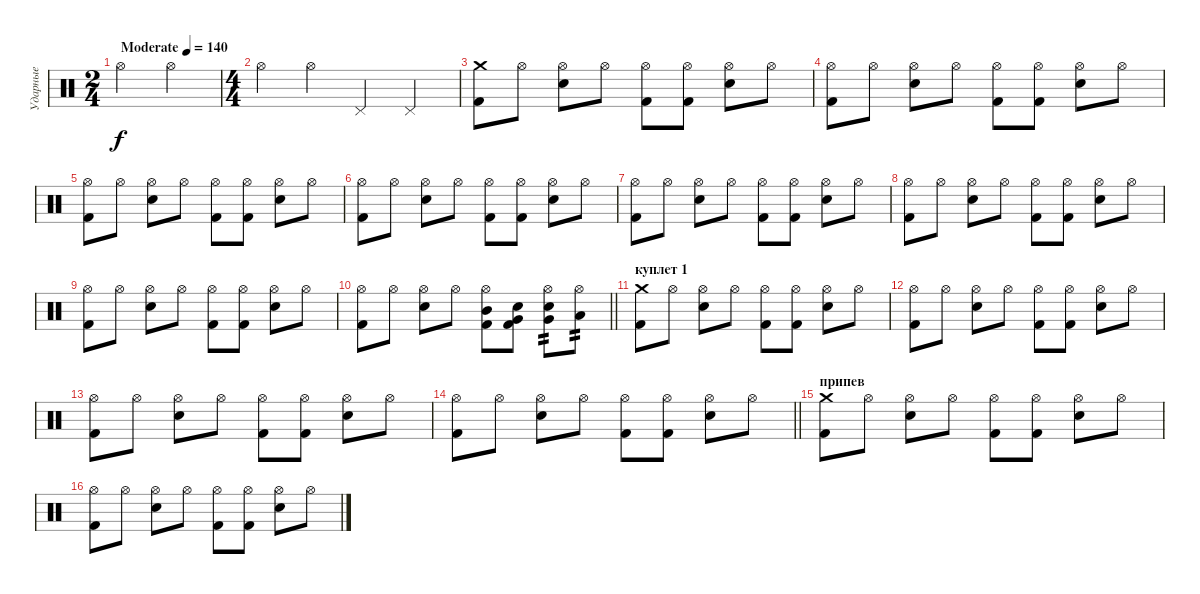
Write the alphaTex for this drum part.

\track ("Ударные" "Ударные") {instrument percussion}
\staff {score}
\articulation defaults
\ts (2 4)
\tempo (140 "Moderate")
\clef neutral
\ks c "Hi-Hat (open)".4{dy f} "Hi-Hat (open)".4
|
\ts (4 4)
"Hi-Hat (open)".4 "Hi-Hat (open)".4 "Pedal Hi-Hat (hit)".4 "Pedal Hi-Hat (hit)".4 |
("Crash medium (hit)" "Kick (hit) 2").8 "Hi-Hat (open)".8 ("Hi-Hat (open)" "Electric Snare (hit)").8 "Hi-Hat (open)".8 ("Hi-Hat (open)" "Kick (hit) 2").8 ("Hi-Hat (open)" "Kick (hit) 2").8 ("Hi-Hat (open)" "Electric Snare (hit)").8 "Hi-Hat (open)".8 |
("Hi-Hat (open)" "Kick (hit) 2").8 "Hi-Hat (open)".8 ("Hi-Hat (open)" "Electric Snare (hit)").8 "Hi-Hat (open)".8 ("Hi-Hat (open)" "Kick (hit) 2").8 ("Hi-Hat (open)" "Kick (hit) 2").8 ("Hi-Hat (open)" "Electric Snare (hit)").8 "Hi-Hat (open)".8 |
("Hi-Hat (open)" "Kick (hit) 2").8 "Hi-Hat (open)".8 ("Hi-Hat (open)" "Electric Snare (hit)").8 "Hi-Hat (open)".8 ("Hi-Hat (open)" "Kick (hit) 2").8 ("Hi-Hat (open)" "Kick (hit) 2").8 ("Hi-Hat (open)" "Electric Snare (hit)").8 "Hi-Hat (open)".8 |
("Hi-Hat (open)" "Kick (hit) 2").8 "Hi-Hat (open)".8 ("Hi-Hat (open)" "Electric Snare (hit)").8 "Hi-Hat (open)".8 ("Hi-Hat (open)" "Kick (hit) 2").8 ("Hi-Hat (open)" "Kick (hit) 2").8 ("Hi-Hat (open)" "Electric Snare (hit)").8 "Hi-Hat (open)".8 |
("Hi-Hat (open)" "Kick (hit) 2").8 "Hi-Hat (open)".8 ("Hi-Hat (open)" "Electric Snare (hit)").8 "Hi-Hat (open)".8 ("Hi-Hat (open)" "Kick (hit) 2").8 ("Hi-Hat (open)" "Kick (hit) 2").8 ("Hi-Hat (open)" "Electric Snare (hit)").8 "Hi-Hat (open)".8 |
("Hi-Hat (open)" "Kick (hit) 2").8 "Hi-Hat (open)".8 ("Hi-Hat (open)" "Electric Snare (hit)").8 "Hi-Hat (open)".8 ("Hi-Hat (open)" "Kick (hit) 2").8 ("Hi-Hat (open)" "Kick (hit) 2").8 ("Hi-Hat (open)" "Electric Snare (hit)").8 "Hi-Hat (open)".8 |
("Hi-Hat (open)" "Kick (hit) 2").8 "Hi-Hat (open)".8 ("Hi-Hat (open)" "Electric Snare (hit)").8 "Hi-Hat (open)".8 ("Hi-Hat (open)" "Kick (hit) 2").8 ("Hi-Hat (open)" "Kick (hit) 2").8 ("Hi-Hat (open)" "Electric Snare (hit)").8 "Hi-Hat (open)".8 |
\barLineRight lightlight
("Hi-Hat (open)" "Kick (hit) 2").8 "Hi-Hat (open)".8 ("Hi-Hat (open)" "Electric Snare (hit)").8 "Hi-Hat (open)".8 ("Mid Tom (hit)" "Hi-Hat (open)" "Kick (hit) 2").8 ("Very Low Tom (hit)" "Electric Snare (hit)" "Kick (hit) 2").8 ("Very Low Tom (hit)" "Hi-Hat (open)" "Electric Snare (hit)").8{tp 2} ("Low Floor Tom (hit)" "Hi-Hat (open)").8{tp 2} |
\section ("" "куплет 1")
("Crash medium (hit)" "Kick (hit) 2").8 "Hi-Hat (open)".8 ("Hi-Hat (open)" "Electric Snare (hit)").8 "Hi-Hat (open)".8 ("Hi-Hat (open)" "Kick (hit) 2").8 ("Hi-Hat (open)" "Kick (hit) 2").8 ("Hi-Hat (open)" "Electric Snare (hit)").8 "Hi-Hat (open)".8 |
("Hi-Hat (open)" "Kick (hit) 2").8 "Hi-Hat (open)".8 ("Hi-Hat (open)" "Electric Snare (hit)").8 "Hi-Hat (open)".8 ("Hi-Hat (open)" "Kick (hit) 2").8 ("Hi-Hat (open)" "Kick (hit) 2").8 ("Hi-Hat (open)" "Electric Snare (hit)").8 "Hi-Hat (open)".8 |
("Hi-Hat (open)" "Kick (hit) 2").8 "Hi-Hat (open)".8 ("Hi-Hat (open)" "Electric Snare (hit)").8 "Hi-Hat (open)".8 ("Hi-Hat (open)" "Kick (hit) 2").8 ("Hi-Hat (open)" "Kick (hit) 2").8 ("Hi-Hat (open)" "Electric Snare (hit)").8 "Hi-Hat (open)".8 |
\barLineRight lightlight
("Hi-Hat (open)" "Kick (hit) 2").8 "Hi-Hat (open)".8 ("Hi-Hat (open)" "Electric Snare (hit)").8 "Hi-Hat (open)".8 ("Hi-Hat (open)" "Kick (hit) 2").8 ("Hi-Hat (open)" "Kick (hit) 2").8 ("Hi-Hat (open)" "Electric Snare (hit)").8 "Hi-Hat (open)".8 |
\section ("" "припев")
("Crash medium (hit)" "Kick (hit) 2").8 "Hi-Hat (open)".8 ("Hi-Hat (open)" "Electric Snare (hit)").8 "Hi-Hat (open)".8 ("Hi-Hat (open)" "Kick (hit) 2").8 ("Hi-Hat (open)" "Kick (hit) 2").8 ("Hi-Hat (open)" "Electric Snare (hit)").8 "Hi-Hat (open)".8 |
("Hi-Hat (open)" "Kick (hit) 2").8 "Hi-Hat (open)".8 ("Hi-Hat (open)" "Electric Snare (hit)").8 "Hi-Hat (open)".8 ("Hi-Hat (open)" "Kick (hit) 2").8 ("Hi-Hat (open)" "Kick (hit) 2").8 ("Hi-Hat (open)" "Electric Snare (hit)").8 "Hi-Hat (open)".8
